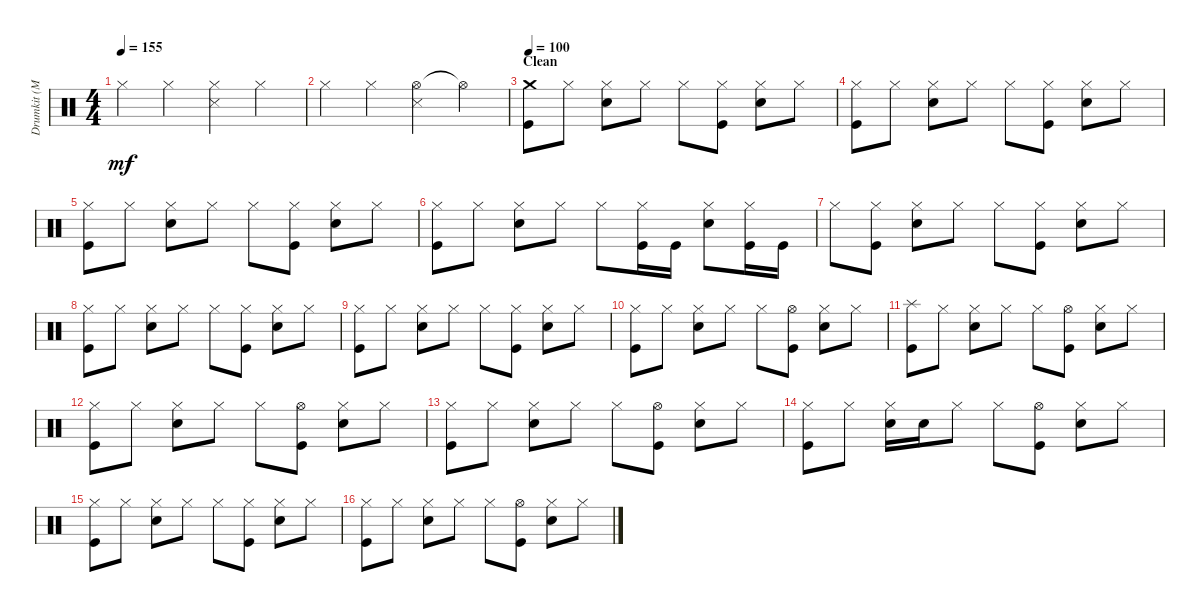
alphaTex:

\track ("Drumkit (McBrain)" "Drumkit (M") {instrument percussion}
\staff {score}
\articulation defaults
\ts (4 4)
\tempo 155
\clef neutral
\ks c "Hi-Hat (closed)".4{dy mf} "Hi-Hat (closed)".4
("Hi-Hat (closed)" "Snare (side stick) 3").4 "Hi-Hat (closed)".4 |
"Hi-Hat (closed)".4 "Hi-Hat (closed)".4 ("Hi-Hat (open)" "Snare (side stick) 3").4 "Hi-Hat (open)"{t}.4 |
\section ("" "Clean")
\tempo 100
("Kick (hit)" "Crash medium (hit)").8 "Hi-Hat (closed)".8 ("Hi-Hat (closed)" "Snare (hit) 2").8 "Hi-Hat (closed)".8 "Hi-Hat (closed)".8 ("Hi-Hat (closed)" "Kick (hit)").8 ("Hi-Hat (closed)" "Snare (hit) 2").8 "Hi-Hat (closed)".8 |
("Hi-Hat (closed)" "Kick (hit)").8 "Hi-Hat (closed)".8 ("Hi-Hat (closed)" "Snare (hit) 2").8 "Hi-Hat (closed)".8 "Hi-Hat (closed)".8 ("Hi-Hat (closed)" "Kick (hit)").8 ("Hi-Hat (closed)" "Snare (hit) 2").8 "Hi-Hat (closed)".8 |
("Hi-Hat (closed)" "Kick (hit)").8 "Hi-Hat (closed)".8 ("Hi-Hat (closed)" "Snare (hit) 2").8 "Hi-Hat (closed)".8 "Hi-Hat (closed)".8 ("Hi-Hat (closed)" "Kick (hit)").8 ("Hi-Hat (closed)" "Snare (hit) 2").8 "Hi-Hat (closed)".8 |
("Hi-Hat (closed)" "Kick (hit)").8 "Hi-Hat (closed)".8 ("Hi-Hat (closed)" "Snare (hit) 2").8 "Hi-Hat (closed)".8 "Hi-Hat (closed)".8 ("Hi-Hat (closed)" "Kick (hit)").16 "Kick (hit)".16 ("Hi-Hat (closed)" "Snare (hit) 2").8 ("Hi-Hat (closed)" "Kick (hit)").16 "Kick (hit)".16 |
"Hi-Hat (closed)".8 ("Hi-Hat (closed)" "Kick (hit)").8 ("Hi-Hat (closed)" "Snare (hit) 2").8 "Hi-Hat (closed)".8 "Hi-Hat (closed)".8 ("Hi-Hat (closed)" "Kick (hit)").8 ("Hi-Hat (closed)" "Snare (hit) 2").8 "Hi-Hat (closed)".8 |
("Hi-Hat (closed)" "Kick (hit)").8 "Hi-Hat (closed)".8 ("Hi-Hat (closed)" "Snare (hit) 2").8 "Hi-Hat (closed)".8 "Hi-Hat (closed)".8 ("Hi-Hat (closed)" "Kick (hit)").8 ("Hi-Hat (closed)" "Snare (hit) 2").8 "Hi-Hat (closed)".8 |
("Hi-Hat (closed)" "Kick (hit)").8 "Hi-Hat (closed)".8 ("Hi-Hat (closed)" "Snare (hit) 2").8 "Hi-Hat (closed)".8 "Hi-Hat (closed)".8 ("Hi-Hat (closed)" "Kick (hit)").8 ("Hi-Hat (closed)" "Snare (hit) 2").8 "Hi-Hat (closed)".8 |
("Hi-Hat (closed)" "Kick (hit)").8 "Hi-Hat (closed)".8 ("Hi-Hat (closed)" "Snare (hit) 2").8 "Hi-Hat (closed)".8 "Hi-Hat (closed)".8 ("Hi-Hat (open)" "Kick (hit)").8 ("Hi-Hat (closed)" "Snare (hit) 2").8 "Hi-Hat (closed)".8 |
("Kick (hit)" "Splash (hit)").8 "Hi-Hat (closed)".8 ("Hi-Hat (closed)" "Snare (hit) 2").8 "Hi-Hat (closed)".8 "Hi-Hat (closed)".8 ("Hi-Hat (open)" "Kick (hit)").8 ("Hi-Hat (closed)" "Snare (hit) 2").8 "Hi-Hat (closed)".8 |
("Hi-Hat (closed)" "Kick (hit)").8 "Hi-Hat (closed)".8 ("Hi-Hat (closed)" "Snare (hit) 2").8 "Hi-Hat (closed)".8 "Hi-Hat (closed)".8 ("Hi-Hat (open)" "Kick (hit)").8 ("Hi-Hat (closed)" "Snare (hit) 2").8 "Hi-Hat (closed)".8 |
("Hi-Hat (closed)" "Kick (hit)").8 "Hi-Hat (closed)".8 ("Hi-Hat (closed)" "Snare (hit) 2").8 "Hi-Hat (closed)".8 "Hi-Hat (closed)".8 ("Hi-Hat (open)" "Kick (hit)").8 ("Hi-Hat (closed)" "Snare (hit) 2").8 "Hi-Hat (closed)".8 |
("Hi-Hat (closed)" "Kick (hit)").8 "Hi-Hat (closed)".8 ("Snare (hit) 2" "Hi-Hat (closed)").16 "Snare (hit) 2".16 "Hi-Hat (closed)".8 "Hi-Hat (closed)".8 ("Hi-Hat (open)" "Kick (hit)").8 ("Hi-Hat (closed)" "Snare (hit) 2").8 "Hi-Hat (closed)".8 |
("Hi-Hat (closed)" "Kick (hit)").8 "Hi-Hat (closed)".8 ("Hi-Hat (closed)" "Snare (hit) 2").8 "Hi-Hat (closed)".8 "Hi-Hat (closed)".8 ("Hi-Hat (closed)" "Kick (hit)").8 ("Hi-Hat (closed)" "Snare (hit) 2").8 "Hi-Hat (closed)".8 |
("Hi-Hat (closed)" "Kick (hit)").8 "Hi-Hat (closed)".8 ("Hi-Hat (closed)" "Snare (hit) 2").8 "Hi-Hat (closed)".8 "Hi-Hat (closed)".8 ("Hi-Hat (open)" "Kick (hit)").8 ("Hi-Hat (closed)" "Snare (hit) 2").8 "Hi-Hat (closed)".8
